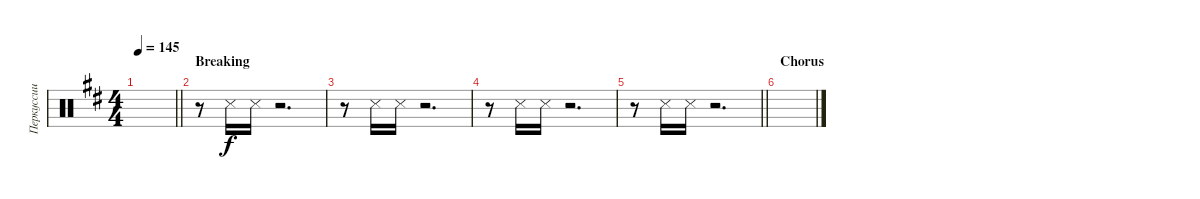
\track ("Перкуссии" "Перкуссии") {instrument percussion}
\staff {score}
\articulation defaults
\ts (4 4)
\tempo 145
\clef neutral
\barLineRight lightlight
\ks bminor
|
\section ("" "Breaking")
r.8 "Snare (side stick) 3".16 "Snare (side stick) 3".16 r.2{d} |
r.8 "Snare (side stick) 3".16 "Snare (side stick) 3".16 r.2{d} |
r.8 "Snare (side stick) 3".16 "Snare (side stick) 3".16 r.2{d} |
\barLineRight lightlight
r.8 "Snare (side stick) 3".16 "Snare (side stick) 3".16 r.2{d} |
\section ("" "Chorus")
